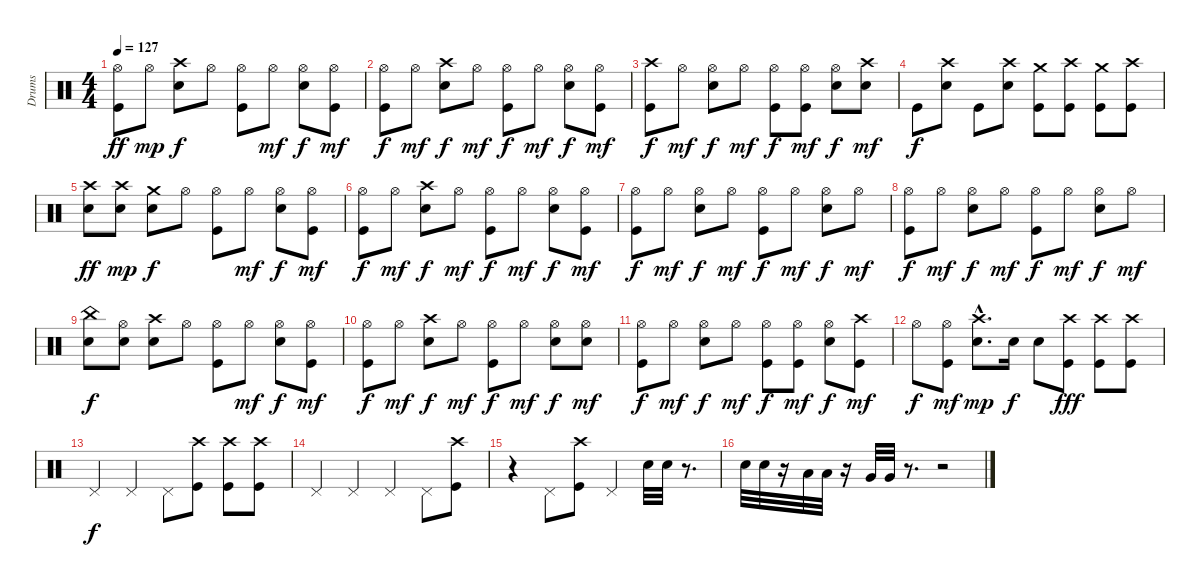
\track ("Drums" "Drums") {instrument percussion}
\staff {score}
\articulation defaults
\ts (4 4)
\tempo 127
\clef neutral
\ks c
("Hi-Hat (open)" "Kick (hit)").8{dy ff} "Hi-Hat (open)".8{dy mp} ("Crash high (hit)" "Snare (hit) 2").8{dy f} "Hi-Hat (open)".8 ("Hi-Hat (open)" "Kick (hit)").8 "Hi-Hat (open)".8{dy mf} ("Hi-Hat (open)" "Snare (hit) 2").8{dy f} ("Hi-Hat (open)" "Kick (hit)").8{dy mf} |
("Hi-Hat (open)" "Kick (hit)").8{dy f} "Hi-Hat (open)".8{dy mf} ("Crash high (hit)" "Snare (hit) 2").8{dy f} "Hi-Hat (open)".8{dy mf} ("Hi-Hat (open)" "Kick (hit)").8{dy f} "Hi-Hat (open)".8{dy mf} ("Hi-Hat (open)" "Snare (hit) 2").8{dy f} ("Hi-Hat (open)" "Kick (hit)").8{dy mf} |
("Crash high (hit)" "Kick (hit)").8{dy f} "Hi-Hat (open)".8{dy mf} ("Hi-Hat (open)" "Snare (hit) 2").8{dy f} "Hi-Hat (open)".8{dy mf} ("Hi-Hat (open)" "Kick (hit)").8{dy f} ("Hi-Hat (open)" "Kick (hit)").8{dy mf} ("Hi-Hat (open)" "Snare (hit) 2").8{dy f} ("Crash high (hit)" "Snare (hit) 2").8{dy mf} |
"Kick (hit)".8{dy f} ("Crash high (hit)" "Snare (hit) 2").8 "Kick (hit)".8 ("Crash high (hit)" "Snare (hit) 2").8 ("Crash medium (hit)" "Kick (hit)").8 ("Crash high (hit)" "Kick (hit)").8 ("Crash medium (hit)" "Kick (hit)").8 ("Crash high (hit)" "Kick (hit)").8 |
("Crash high (hit)" "Snare (hit) 2").8{dy ff} ("Crash high (hit)" "Snare (hit) 2").8{dy mp} ("Crash medium (hit)" "Snare (hit) 2").8{dy f} "Hi-Hat (open)".8 ("Hi-Hat (open)" "Kick (hit)").8 "Hi-Hat (open)".8{dy mf} ("Hi-Hat (open)" "Snare (hit) 2").8{dy f} ("Hi-Hat (open)" "Kick (hit)").8{dy mf} |
("Hi-Hat (open)" "Kick (hit)").8{dy f} "Hi-Hat (open)".8{dy mf} ("Crash high (hit)" "Snare (hit) 2").8{dy f} "Hi-Hat (open)".8{dy mf} ("Hi-Hat (open)" "Kick (hit)").8{dy f} "Hi-Hat (open)".8{dy mf} ("Hi-Hat (open)" "Snare (hit) 2").8{dy f} ("Hi-Hat (open)" "Kick (hit)").8{dy mf} |
("Hi-Hat (open)" "Kick (hit)").8{dy f} "Hi-Hat (open)".8{dy mf} ("Hi-Hat (open)" "Snare (hit) 2").8{dy f} "Hi-Hat (open)".8{dy mf} ("Hi-Hat (open)" "Kick (hit)").8{dy f} "Hi-Hat (open)".8{dy mf} ("Hi-Hat (open)" "Snare (hit) 2").8{dy f} "Hi-Hat (open)".8{dy mf} |
("Hi-Hat (open)" "Kick (hit)").8{dy f} "Hi-Hat (open)".8{dy mf} ("Hi-Hat (open)" "Snare (hit) 2").8{dy f} "Hi-Hat (open)".8{dy mf} ("Hi-Hat (open)" "Kick (hit)").8{dy f} "Hi-Hat (open)".8{dy mf} ("Hi-Hat (open)" "Snare (hit) 2").8{dy f} "Hi-Hat (open)".8{dy mf} |
("China (hit)" "Snare (hit) 2").8{dy f} ("Hi-Hat (open)" "Snare (hit) 2").8 ("Crash high (hit)" "Snare (hit) 2").8 "Hi-Hat (open)".8 ("Hi-Hat (open)" "Kick (hit)").8 "Hi-Hat (open)".8{dy mf} ("Hi-Hat (open)" "Snare (hit) 2").8{dy f} ("Hi-Hat (open)" "Kick (hit)").8{dy mf} |
("Hi-Hat (open)" "Kick (hit)").8{dy f} "Hi-Hat (open)".8{dy mf} ("Crash high (hit)" "Snare (hit) 2").8{dy f} "Hi-Hat (open)".8{dy mf} ("Hi-Hat (open)" "Kick (hit)").8{dy f} "Hi-Hat (open)".8{dy mf} ("Hi-Hat (open)" "Snare (hit) 2").8{dy f} ("Hi-Hat (open)" "Snare (hit) 2").8{dy mf} |
("Hi-Hat (open)" "Kick (hit)").8{dy f} "Hi-Hat (open)".8{dy mf} ("Hi-Hat (open)" "Snare (hit) 2").8{dy f} "Hi-Hat (open)".8{dy mf} ("Hi-Hat (open)" "Kick (hit)").8{dy f} ("Hi-Hat (open)" "Kick (hit)").8{dy mf} ("Hi-Hat (open)" "Snare (hit) 2").8{dy f} ("Crash high (hit)" "Kick (hit)").8{dy mf} |
"Hi-Hat (open)".8{dy f} ("Hi-Hat (open)" "Kick (hit)").8{dy mf} ("Crash high (hit)"{hac} "Snare (hit) 2"{hac}).8{d dy mp} "Snare (hit) 2".16{dy f} "Snare (hit) 2".8 ("Crash high (hit)" "Kick (hit)").8{dy fff} ("Crash high (hit)" "Kick (hit)").8 ("Crash high (hit)" "Kick (hit)").8 |
"Pedal Hi-Hat (hit)".4{dy f} "Pedal Hi-Hat (hit)".4 "Pedal Hi-Hat (hit)".8 ("Crash high (hit)" "Kick (hit)").8 ("Crash high (hit)" "Kick (hit)").8 ("Crash high (hit)" "Kick (hit)").8 |
"Pedal Hi-Hat (hit)".4 "Pedal Hi-Hat (hit)".4 "Pedal Hi-Hat (hit)".4 "Pedal Hi-Hat (hit)".8 ("Crash high (hit)" "Kick (hit)").8 |
r.4 "Pedal Hi-Hat (hit)".8 ("Crash high (hit)" "Kick (hit)").8 "Pedal Hi-Hat (hit)".4 "Snare (hit) 2".32 "Snare (hit) 2".32 r.8{d} |
"Snare (hit) 2".32 "Snare (hit) 2".32 r.16 "Low Tom (hit)".32 "Low Tom (hit)".32 r.16 "Very Low Tom (hit)".32 "Very Low Tom (hit)".32 r.8{d} r.2
